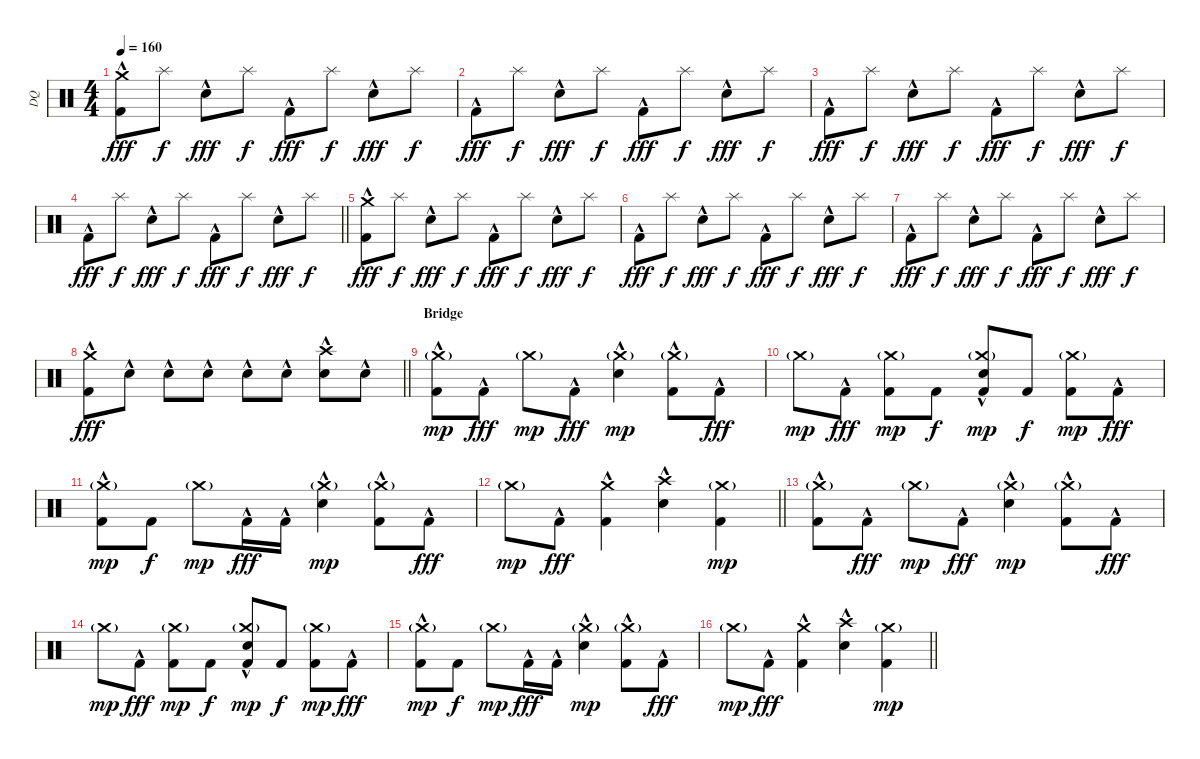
\track ("DQ" "DQ") {instrument percussion}
\staff {score}
\articulation defaults
\ts (4 4)
\section ("" "")
\tempo 160
\clef neutral
\ks c
("Kick (hit) 2"{hac} "Crash medium (hit)").8{dy fff} "Splash (hit)".8{dy f} "Snare (hit) 2"{hac}.8{dy fff} "Splash (hit)".8{dy f} "Kick (hit) 2"{hac}.8{dy fff} "Splash (hit)".8{dy f} "Snare (hit) 2"{hac}.8{dy fff} "Splash (hit)".8{dy f} |
"Kick (hit) 2"{hac}.8{dy fff} "Splash (hit)".8{dy f} "Snare (hit) 2"{hac}.8{dy fff} "Splash (hit)".8{dy f} "Kick (hit) 2"{hac}.8{dy fff} "Splash (hit)".8{dy f} "Snare (hit) 2"{hac}.8{dy fff} "Splash (hit)".8{dy f} |
"Kick (hit) 2"{hac}.8{dy fff} "Splash (hit)".8{dy f} "Snare (hit) 2"{hac}.8{dy fff} "Splash (hit)".8{dy f} "Kick (hit) 2"{hac}.8{dy fff} "Splash (hit)".8{dy f} "Snare (hit) 2"{hac}.8{dy fff} "Splash (hit)".8{dy f} |
\barLineRight lightlight "Kick (hit) 2"{hac}.8{dy fff} "Splash (hit)".8{dy f} "Snare (hit) 2"{hac}.8{dy fff} "Splash (hit)".8{dy f} "Kick (hit) 2"{hac}.8{dy fff} "Splash (hit)".8{dy f} "Snare (hit) 2"{hac}.8{dy fff} "Splash (hit)".8{dy f}
|
\section ("" "")
("Kick (hit) 2"{hac} "Crash medium (hit)").8{dy fff} "Splash (hit)".8{dy f} "Snare (hit) 2"{hac}.8{dy fff} "Splash (hit)".8{dy f} "Kick (hit) 2"{hac}.8{dy fff} "Splash (hit)".8{dy f} "Snare (hit) 2"{hac}.8{dy fff} "Splash (hit)".8{dy f} |
"Kick (hit) 2"{hac}.8{dy fff} "Splash (hit)".8{dy f} "Snare (hit) 2"{hac}.8{dy fff} "Splash (hit)".8{dy f} "Kick (hit) 2"{hac}.8{dy fff} "Splash (hit)".8{dy f} "Snare (hit) 2"{hac}.8{dy fff} "Splash (hit)".8{dy f} |
"Kick (hit) 2"{hac}.8{dy fff} "Splash (hit)".8{dy f} "Snare (hit) 2"{hac}.8{dy fff} "Splash (hit)".8{dy f} "Kick (hit) 2"{hac}.8{dy fff} "Splash (hit)".8{dy f} "Snare (hit) 2"{hac}.8{dy fff} "Splash (hit)".8{dy f} |
\barLineRight lightlight
("Kick (hit) 2"{hac} "Crash medium (hit)").8{dy fff} "Snare (hit) 2"{hac}.8 "Snare (hit) 2"{hac}.8 "Snare (hit) 2"{hac}.8 "Snare (hit) 2"{hac}.8 "Snare (hit) 2"{hac}.8 ("Snare (hit) 2"{hac} "Crash high (hit)").8 "Snare (hit) 2"{hac}.8 |
\section ("" "Bridge")
("Kick (hit) 2"{hac} "Crash medium (hit)"{g}).8{dy mp} "Kick (hit) 2"{hac}.8{dy fff} "Crash medium (hit)"{g}.8{dy mp} "Kick (hit) 2"{hac}.8{dy fff} ("Snare (hit) 2"{hac} "Crash medium (hit)"{g}).4{dy mp} ("Kick (hit) 2"{hac} "Crash medium (hit)"{g}).8 "Kick (hit) 2"{hac}.8{dy fff} |
"Crash medium (hit)"{g}.8{dy mp} "Kick (hit) 2"{hac}.8{dy fff} ("Kick (hit) 2" "Crash medium (hit)"{g}).8{dy mp} "Kick (hit) 2".8{dy f} ("Kick (hit) 2"{hac} "Snare (hit) 2"{hac} "Crash medium (hit)"{g}).8{dy mp} "Kick (hit) 2".8{dy f} ("Kick (hit) 2" "Crash medium (hit)"{g}).8{dy mp} "Kick (hit) 2"{hac}.8{dy fff} |
("Kick (hit) 2"{hac} "Crash medium (hit)"{g}).8{dy mp} "Kick (hit) 2".8{dy f} "Crash medium (hit)"{g}.8{dy mp} "Kick (hit) 2"{hac}.16{dy fff} "Kick (hit) 2"{hac}.16 ("Snare (hit) 2"{hac} "Crash medium (hit)"{g}).4{dy mp} ("Kick (hit) 2"{hac} "Crash medium (hit)"{g}).8 "Kick (hit) 2"{hac}.8{dy fff} |
\barLineRight lightlight "Crash medium (hit)"{g}.8{dy mp} "Kick (hit) 2"{hac}.8{dy fff}
("Kick (hit) 2"{hac} "Crash medium (hit)").4 ("Snare (hit) 2"{hac} "Crash high (hit)").4 ("Kick (hit) 2" "Crash medium (hit)"{g}).4{dy mp} |
\section ("" "")
("Kick (hit) 2"{hac} "Crash medium (hit)"{g}).8 "Kick (hit) 2"{hac}.8{dy fff} "Crash medium (hit)"{g}.8{dy mp} "Kick (hit) 2"{hac}.8{dy fff} ("Snare (hit) 2"{hac} "Crash medium (hit)"{g}).4{dy mp} ("Kick (hit) 2"{hac} "Crash medium (hit)"{g}).8 "Kick (hit) 2"{hac}.8{dy fff} |
"Crash medium (hit)"{g}.8{dy mp} "Kick (hit) 2"{hac}.8{dy fff} ("Kick (hit) 2" "Crash medium (hit)"{g}).8{dy mp} "Kick (hit) 2".8{dy f} ("Kick (hit) 2"{hac} "Snare (hit) 2"{hac} "Crash medium (hit)"{g}).8{dy mp} "Kick (hit) 2".8{dy f} ("Kick (hit) 2" "Crash medium (hit)"{g}).8{dy mp} "Kick (hit) 2"{hac}.8{dy fff} |
("Kick (hit) 2"{hac} "Crash medium (hit)"{g}).8{dy mp} "Kick (hit) 2".8{dy f} "Crash medium (hit)"{g}.8{dy mp} "Kick (hit) 2"{hac}.16{dy fff} "Kick (hit) 2"{hac}.16 ("Snare (hit) 2"{hac} "Crash medium (hit)"{g}).4{dy mp} ("Kick (hit) 2"{hac} "Crash medium (hit)"{g}).8 "Kick (hit) 2"{hac}.8{dy fff} |
\barLineRight lightlight "Crash medium (hit)"{g}.8{dy mp} "Kick (hit) 2"{hac}.8{dy fff}
("Kick (hit) 2"{hac} "Crash medium (hit)").4 ("Snare (hit) 2"{hac} "Crash high (hit)").4 ("Kick (hit) 2" "Crash medium (hit)"{g}).4{dy mp}
